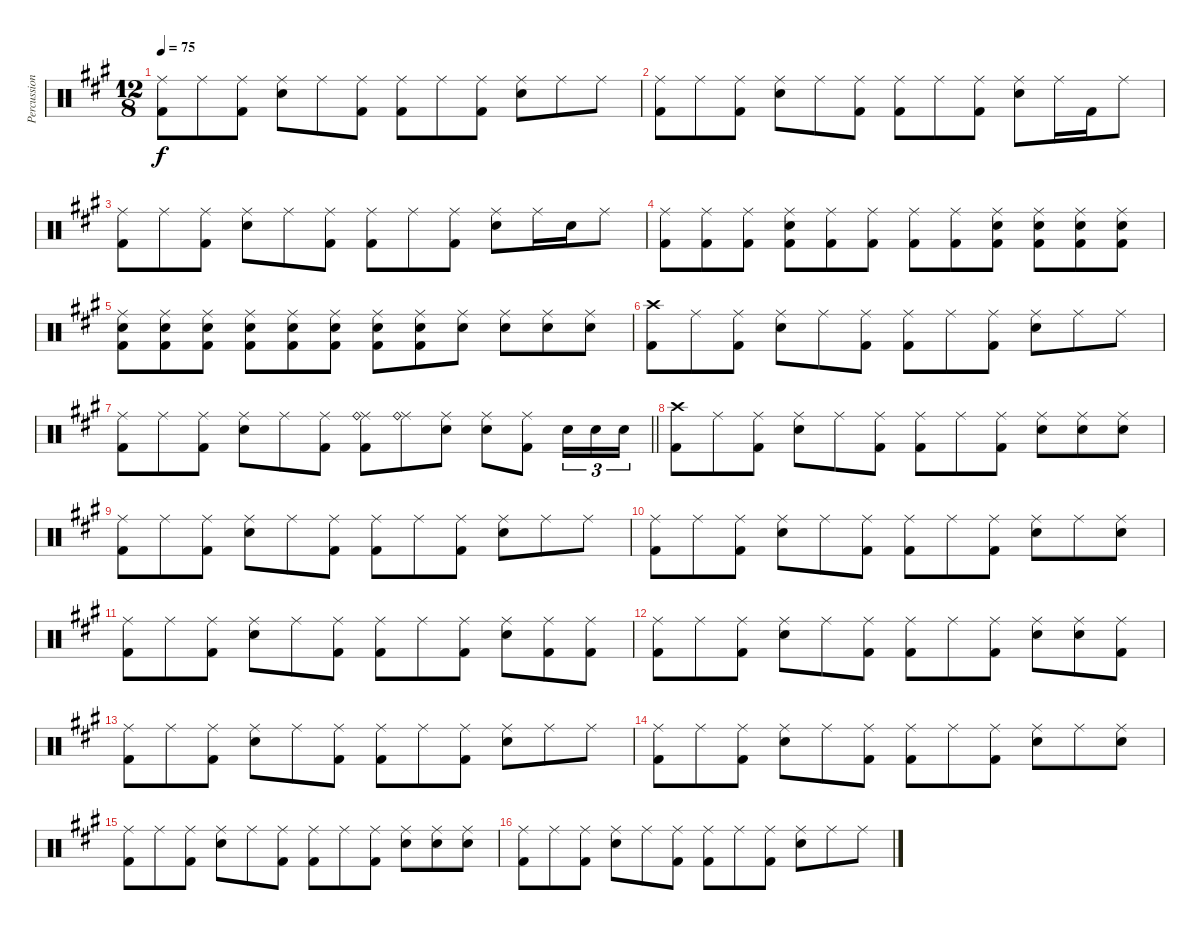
\track ("Percussion" "Percussion") {instrument percussion}
\staff {score}
\articulation defaults
\ts (12 8)
\tempo 75
\clef neutral
\ks a
("Ride (middle)" "Kick (hit) 2").8{dy f} "Ride (middle)".8 ("Ride (middle)" "Kick (hit) 2").8 ("Ride (middle)" "Snare (hit) 2").8 "Ride (middle)".8 ("Ride (middle)" "Kick (hit) 2").8 ("Ride (middle)" "Kick (hit) 2").8 "Ride (middle)".8 ("Ride (middle)" "Kick (hit) 2").8 ("Ride (middle)" "Snare (hit) 2").8 "Ride (middle)".8 "Ride (middle)".8 |
("Ride (middle)" "Kick (hit) 2").8 "Ride (middle)".8 ("Ride (middle)" "Kick (hit) 2").8 ("Ride (middle)" "Snare (hit) 2").8 "Ride (middle)".8 ("Ride (middle)" "Kick (hit) 2").8 ("Ride (middle)" "Kick (hit) 2").8 "Ride (middle)".8 ("Ride (middle)" "Kick (hit) 2").8 ("Ride (middle)" "Snare (hit) 2").8 "Ride (middle)".16 "Kick (hit) 2".16 "Ride (middle)".8 |
("Ride (middle)" "Kick (hit) 2").8 "Ride (middle)".8 ("Ride (middle)" "Kick (hit) 2").8 ("Ride (middle)" "Snare (hit) 2").8 "Ride (middle)".8 ("Ride (middle)" "Kick (hit) 2").8 ("Ride (middle)" "Kick (hit) 2").8 "Ride (middle)".8 ("Ride (middle)" "Kick (hit) 2").8 ("Ride (middle)" "Snare (hit) 2").8 "Ride (middle)".16 "Snare (hit) 2".16 "Ride (middle)".8 |
("Ride (middle)" "Kick (hit) 2").8 ("Ride (middle)" "Kick (hit) 2").8 ("Ride (middle)" "Kick (hit) 2").8 ("Ride (middle)" "Snare (hit) 2" "Kick (hit) 2").8 ("Ride (middle)" "Kick (hit) 2").8 ("Ride (middle)" "Kick (hit) 2").8 ("Ride (middle)" "Kick (hit) 2").8 ("Ride (middle)" "Kick (hit) 2").8 ("Ride (middle)" "Snare (hit) 2" "Kick (hit) 2").8 ("Ride (middle)" "Snare (hit) 2" "Kick (hit) 2").8 ("Ride (middle)" "Snare (hit) 2" "Kick (hit) 2").8 ("Ride (middle)" "Snare (hit) 2" "Kick (hit) 2").8 |
("Ride (middle)" "Snare (hit) 2" "Kick (hit) 2").8 ("Ride (middle)" "Snare (hit) 2" "Kick (hit) 2").8 ("Ride (middle)" "Snare (hit) 2" "Kick (hit) 2").8 ("Ride (middle)" "Snare (hit) 2" "Kick (hit) 2").8 ("Ride (middle)" "Snare (hit) 2" "Kick (hit) 2").8 ("Ride (middle)" "Snare (hit) 2" "Kick (hit) 2").8 ("Ride (middle)" "Snare (hit) 2" "Kick (hit) 2").8 ("Ride (middle)" "Snare (hit) 2" "Kick (hit) 2").8 ("Ride (middle)" "Snare (hit) 2").8 ("Ride (middle)" "Snare (hit) 2").8 ("Ride (middle)" "Snare (hit) 2").8 ("Ride (middle)" "Snare (hit) 2").8 |
("Crash high (hit)" "Kick (hit) 2").8 "Ride (middle)".8 ("Ride (middle)" "Kick (hit) 2").8 ("Ride (middle)" "Snare (hit) 2").8 "Ride (middle)".8 ("Ride (middle)" "Kick (hit) 2").8 ("Ride (middle)" "Kick (hit) 2").8 "Ride (middle)".8 ("Ride (middle)" "Kick (hit) 2").8 ("Ride (middle)" "Snare (hit) 2").8 "Ride (middle)".8 "Ride (middle)".8 |
\barLineRight lightlight
("Ride (middle)" "Kick (hit) 2").8 "Ride (middle)".8 ("Ride (middle)" "Kick (hit) 2").8 ("Ride (middle)" "Snare (hit) 2").8 "Ride (middle)".8 ("Ride (middle)" "Kick (hit) 2").8 ("Ride (middle)" "Ride (bell)" "Kick (hit) 2").8 ("Ride (middle)" "Ride (bell)").8 ("Ride (middle)" "Snare (hit) 2").8 ("Ride (middle)" "Snare (hit) 2").8 ("Ride (middle)" "Kick (hit) 2").8 "Snare (hit) 2".16{tu (3 2)} "Snare (hit) 2".16{tu (3 2)} "Snare (hit) 2".16{tu (3 2)} |
("Crash high (hit)" "Kick (hit) 2").8 "Ride (middle)".8 ("Ride (middle)" "Kick (hit) 2").8 ("Ride (middle)" "Snare (hit) 2").8 "Ride (middle)".8 ("Ride (middle)" "Kick (hit) 2").8 ("Ride (middle)" "Kick (hit) 2").8 "Ride (middle)".8 ("Ride (middle)" "Kick (hit) 2").8 ("Ride (middle)" "Snare (hit) 2").8 ("Ride (middle)" "Snare (hit) 2").8 ("Ride (middle)" "Snare (hit) 2").8 |
("Ride (middle)" "Kick (hit) 2").8 "Ride (middle)".8 ("Ride (middle)" "Kick (hit) 2").8 ("Ride (middle)" "Snare (hit) 2").8 "Ride (middle)".8 ("Ride (middle)" "Kick (hit) 2").8 ("Ride (middle)" "Kick (hit) 2").8 "Ride (middle)".8 ("Ride (middle)" "Kick (hit) 2").8 ("Ride (middle)" "Snare (hit) 2").8 "Ride (middle)".8 "Ride (middle)".8 |
("Ride (middle)" "Kick (hit) 2").8 "Ride (middle)".8 ("Ride (middle)" "Kick (hit) 2").8 ("Ride (middle)" "Snare (hit) 2").8 "Ride (middle)".8 ("Ride (middle)" "Kick (hit) 2").8 ("Ride (middle)" "Kick (hit) 2").8 "Ride (middle)".8 ("Ride (middle)" "Kick (hit) 2").8 ("Ride (middle)" "Snare (hit) 2").8 "Ride (middle)".8 ("Ride (middle)" "Snare (hit) 2").8 |
("Ride (middle)" "Kick (hit) 2").8 "Ride (middle)".8 ("Ride (middle)" "Kick (hit) 2").8 ("Ride (middle)" "Snare (hit) 2").8 "Ride (middle)".8 ("Ride (middle)" "Kick (hit) 2").8 ("Ride (middle)" "Kick (hit) 2").8 "Ride (middle)".8 ("Ride (middle)" "Kick (hit) 2").8 ("Ride (middle)" "Snare (hit) 2").8 ("Ride (middle)" "Kick (hit) 2").8 ("Ride (middle)" "Kick (hit) 2").8 |
("Ride (middle)" "Kick (hit) 2").8 "Ride (middle)".8 ("Ride (middle)" "Kick (hit) 2").8 ("Ride (middle)" "Snare (hit) 2").8 "Ride (middle)".8 ("Ride (middle)" "Kick (hit) 2").8 ("Ride (middle)" "Kick (hit) 2").8 "Ride (middle)".8 ("Ride (middle)" "Kick (hit) 2").8 ("Ride (middle)" "Snare (hit) 2").8 ("Ride (middle)" "Snare (hit) 2").8 ("Ride (middle)" "Kick (hit) 2").8 |
("Ride (middle)" "Kick (hit) 2").8 "Ride (middle)".8 ("Ride (middle)" "Kick (hit) 2").8 ("Ride (middle)" "Snare (hit) 2").8 "Ride (middle)".8 ("Ride (middle)" "Kick (hit) 2").8 ("Ride (middle)" "Kick (hit) 2").8 "Ride (middle)".8 ("Ride (middle)" "Kick (hit) 2").8 ("Ride (middle)" "Snare (hit) 2").8 "Ride (middle)".8 "Ride (middle)".8 |
("Ride (middle)" "Kick (hit) 2").8 "Ride (middle)".8 ("Ride (middle)" "Kick (hit) 2").8 ("Ride (middle)" "Snare (hit) 2").8 "Ride (middle)".8 ("Ride (middle)" "Kick (hit) 2").8 ("Ride (middle)" "Kick (hit) 2").8 "Ride (middle)".8 ("Ride (middle)" "Kick (hit) 2").8 ("Ride (middle)" "Snare (hit) 2").8 "Ride (middle)".8 ("Ride (middle)" "Snare (hit) 2").8 |
("Ride (middle)" "Kick (hit) 2").8 "Ride (middle)".8 ("Ride (middle)" "Kick (hit) 2").8 ("Ride (middle)" "Snare (hit) 2").8 "Ride (middle)".8 ("Ride (middle)" "Kick (hit) 2").8 ("Ride (middle)" "Kick (hit) 2").8 "Ride (middle)".8 ("Ride (middle)" "Kick (hit) 2").8 ("Ride (middle)" "Snare (hit) 2").8 ("Ride (middle)" "Snare (hit) 2").8 ("Ride (middle)" "Snare (hit) 2").8 |
("Ride (middle)" "Kick (hit) 2").8 "Ride (middle)".8 ("Ride (middle)" "Kick (hit) 2").8 ("Ride (middle)" "Snare (hit) 2").8 "Ride (middle)".8 ("Ride (middle)" "Kick (hit) 2").8 ("Ride (middle)" "Kick (hit) 2").8 "Ride (middle)".8 ("Ride (middle)" "Kick (hit) 2").8 ("Ride (middle)" "Snare (hit) 2").8 "Ride (middle)".8 "Ride (middle)".8
